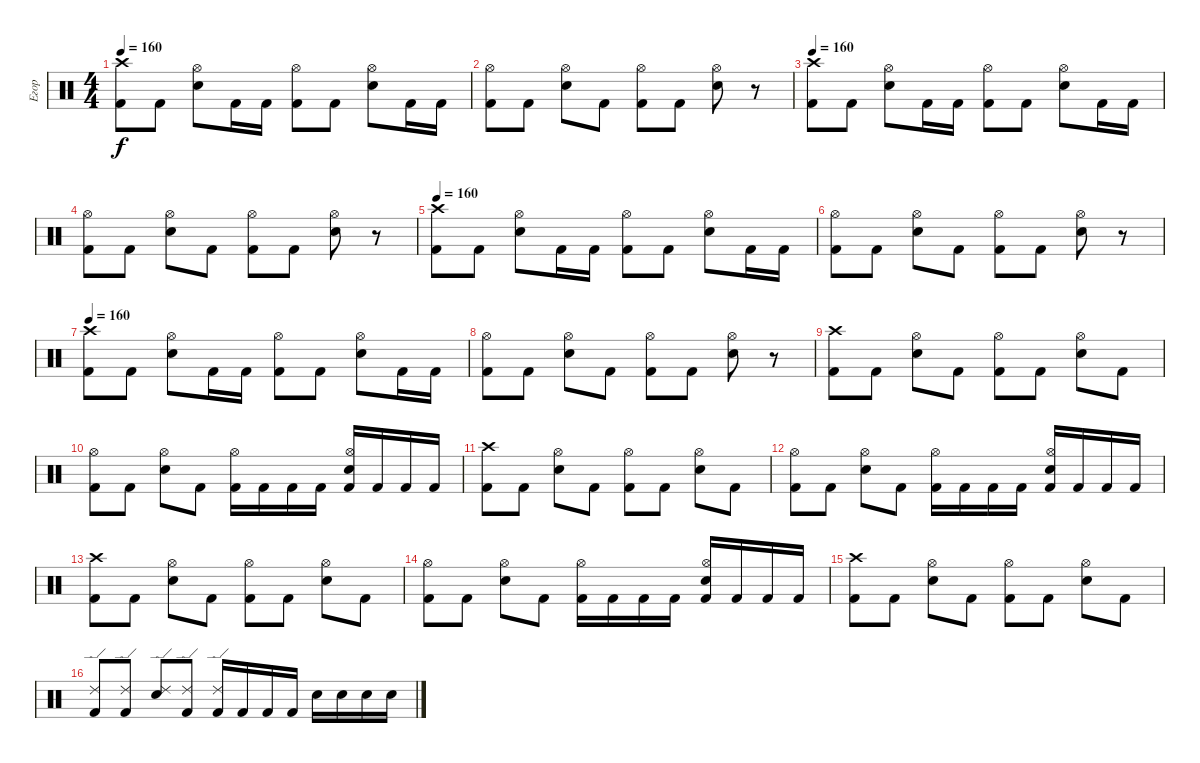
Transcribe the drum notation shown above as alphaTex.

\track ("Егор" "Егор") {instrument percussion}
\staff {score}
\articulation defaults
\ts (4 4)
\tempo 160
\clef neutral
\ks c
("Crash high (hit)" "Kick (hit) 2").8{dy f} "Kick (hit) 2".8 ("Hi-Hat (open)" "Snare (hit) 2").8 "Kick (hit) 2".16 "Kick (hit) 2".16 ("Hi-Hat (open)" "Kick (hit) 2").8 "Kick (hit) 2".8 ("Hi-Hat (open)" "Snare (hit) 2").8 "Kick (hit) 2".16 "Kick (hit) 2".16 |
("Hi-Hat (open)" "Kick (hit) 2").8 "Kick (hit) 2".8 ("Hi-Hat (open)" "Snare (hit) 2").8 "Kick (hit) 2".8 ("Hi-Hat (open)" "Kick (hit) 2").8 "Kick (hit) 2".8 ("Hi-Hat (open)" "Snare (hit) 2").8 r.8 |
\tempo 160
("Crash high (hit)" "Kick (hit) 2").8 "Kick (hit) 2".8 ("Hi-Hat (open)" "Snare (hit) 2").8 "Kick (hit) 2".16 "Kick (hit) 2".16 ("Hi-Hat (open)" "Kick (hit) 2").8 "Kick (hit) 2".8 ("Hi-Hat (open)" "Snare (hit) 2").8 "Kick (hit) 2".16 "Kick (hit) 2".16 |
("Hi-Hat (open)" "Kick (hit) 2").8 "Kick (hit) 2".8 ("Hi-Hat (open)" "Snare (hit) 2").8 "Kick (hit) 2".8 ("Hi-Hat (open)" "Kick (hit) 2").8 "Kick (hit) 2".8 ("Hi-Hat (open)" "Snare (hit) 2").8 r.8 |
\tempo 160
("Crash high (hit)" "Kick (hit) 2").8 "Kick (hit) 2".8 ("Hi-Hat (open)" "Snare (hit) 2").8 "Kick (hit) 2".16 "Kick (hit) 2".16 ("Hi-Hat (open)" "Kick (hit) 2").8 "Kick (hit) 2".8 ("Hi-Hat (open)" "Snare (hit) 2").8 "Kick (hit) 2".16 "Kick (hit) 2".16 |
("Hi-Hat (open)" "Kick (hit) 2").8 "Kick (hit) 2".8 ("Hi-Hat (open)" "Snare (hit) 2").8 "Kick (hit) 2".8 ("Hi-Hat (open)" "Kick (hit) 2").8 "Kick (hit) 2".8 ("Hi-Hat (open)" "Snare (hit) 2").8 r.8 |
\tempo 160
("Crash high (hit)" "Kick (hit) 2").8 "Kick (hit) 2".8 ("Hi-Hat (open)" "Snare (hit) 2").8 "Kick (hit) 2".16 "Kick (hit) 2".16 ("Hi-Hat (open)" "Kick (hit) 2").8 "Kick (hit) 2".8 ("Hi-Hat (open)" "Snare (hit) 2").8 "Kick (hit) 2".16 "Kick (hit) 2".16 |
("Hi-Hat (open)" "Kick (hit) 2").8 "Kick (hit) 2".8 ("Hi-Hat (open)" "Snare (hit) 2").8 "Kick (hit) 2".8 ("Hi-Hat (open)" "Kick (hit) 2").8 "Kick (hit) 2".8 ("Hi-Hat (open)" "Snare (hit) 2").8 r.8 |
("Crash high (hit)" "Kick (hit) 2").8 "Kick (hit) 2".8 ("Hi-Hat (open)" "Snare (hit) 2").8 "Kick (hit) 2".8 ("Hi-Hat (open)" "Kick (hit) 2").8 "Kick (hit) 2".8 ("Hi-Hat (open)" "Snare (hit) 2").8 "Kick (hit) 2".8 |
("Hi-Hat (open)" "Kick (hit) 2").8 "Kick (hit) 2".8 ("Hi-Hat (open)" "Snare (hit) 2").8 "Kick (hit) 2".8 ("Hi-Hat (open)" "Kick (hit) 2").16 "Kick (hit) 2".16 "Kick (hit) 2".16 "Kick (hit) 2".16 ("Hi-Hat (open)" "Snare (hit) 2" "Kick (hit) 2").16 "Kick (hit) 2".16 "Kick (hit) 2".16 "Kick (hit) 2".16 |
("Crash high (hit)" "Kick (hit) 2").8 "Kick (hit) 2".8 ("Hi-Hat (open)" "Snare (hit) 2").8 "Kick (hit) 2".8 ("Hi-Hat (open)" "Kick (hit) 2").8 "Kick (hit) 2".8 ("Hi-Hat (open)" "Snare (hit) 2").8 "Kick (hit) 2".8 |
("Hi-Hat (open)" "Kick (hit) 2").8 "Kick (hit) 2".8 ("Hi-Hat (open)" "Snare (hit) 2").8 "Kick (hit) 2".8 ("Hi-Hat (open)" "Kick (hit) 2").16 "Kick (hit) 2".16 "Kick (hit) 2".16 "Kick (hit) 2".16 ("Hi-Hat (open)" "Snare (hit) 2" "Kick (hit) 2").16 "Kick (hit) 2".16 "Kick (hit) 2".16 "Kick (hit) 2".16 |
("Crash high (hit)" "Kick (hit) 2").8 "Kick (hit) 2".8 ("Hi-Hat (open)" "Snare (hit) 2").8 "Kick (hit) 2".8 ("Hi-Hat (open)" "Kick (hit) 2").8 "Kick (hit) 2".8 ("Hi-Hat (open)" "Snare (hit) 2").8 "Kick (hit) 2".8 |
("Hi-Hat (open)" "Kick (hit) 2").8 "Kick (hit) 2".8 ("Hi-Hat (open)" "Snare (hit) 2").8 "Kick (hit) 2".8 ("Hi-Hat (open)" "Kick (hit) 2").16 "Kick (hit) 2".16 "Kick (hit) 2".16 "Kick (hit) 2".16 ("Hi-Hat (open)" "Snare (hit) 2" "Kick (hit) 2").16 "Kick (hit) 2".16 "Kick (hit) 2".16 "Kick (hit) 2".16 |
("Crash high (hit)" "Kick (hit) 2").8 "Kick (hit) 2".8 ("Hi-Hat (open)" "Snare (hit) 2").8 "Kick (hit) 2".8 ("Hi-Hat (open)" "Kick (hit) 2").8 "Kick (hit) 2".8 ("Hi-Hat (open)" "Snare (hit) 2").8 "Kick (hit) 2".8 |
("Ride (edge) 2" "Kick (hit) 2").8 ("Ride (edge) 2" "Kick (hit) 2").8 ("Ride (edge) 2" "Snare (hit) 2").8 ("Ride (edge) 2" "Kick (hit) 2").8 ("Ride (edge) 2" "Kick (hit) 2").16 "Kick (hit) 2".16 "Kick (hit) 2".16 "Kick (hit) 2".16 "Snare (hit) 2".16 "Snare (hit) 2".16 "Snare (hit) 2".16 "Snare (hit) 2".16
